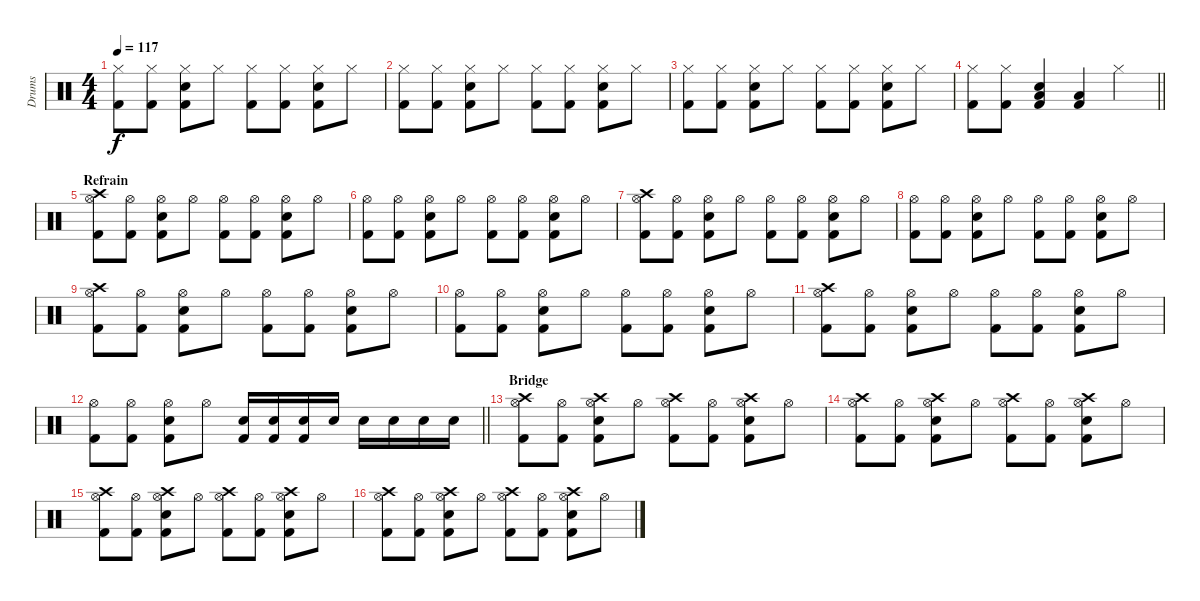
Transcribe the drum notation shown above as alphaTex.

\track ("Drums" "Drums") {instrument percussion}
\staff {score}
\articulation defaults
\ts (4 4)
\tempo 117
\clef neutral
\ks c
("Kick (hit) 2" "Hi-Hat (closed)").8{dy f} ("Kick (hit) 2" "Hi-Hat (closed)").8 ("Kick (hit) 2" "Hi-Hat (closed)" "Snare (hit) 2").8 "Hi-Hat (closed)".8 ("Kick (hit) 2" "Hi-Hat (closed)").8 ("Kick (hit) 2" "Hi-Hat (closed)").8 ("Kick (hit) 2" "Hi-Hat (closed)" "Snare (hit) 2").8 "Hi-Hat (closed)".8 |
("Kick (hit) 2" "Hi-Hat (closed)").8 ("Kick (hit) 2" "Hi-Hat (closed)").8 ("Kick (hit) 2" "Hi-Hat (closed)" "Snare (hit) 2").8 "Hi-Hat (closed)".8 ("Kick (hit) 2" "Hi-Hat (closed)").8 ("Kick (hit) 2" "Hi-Hat (closed)").8 ("Kick (hit) 2" "Hi-Hat (closed)" "Snare (hit) 2").8 "Hi-Hat (closed)".8 |
("Kick (hit) 2" "Hi-Hat (closed)").8 ("Kick (hit) 2" "Hi-Hat (closed)").8 ("Kick (hit) 2" "Hi-Hat (closed)" "Snare (hit) 2").8 "Hi-Hat (closed)".8 ("Kick (hit) 2" "Hi-Hat (closed)").8 ("Kick (hit) 2" "Hi-Hat (closed)").8 ("Kick (hit) 2" "Hi-Hat (closed)" "Snare (hit) 2").8 "Hi-Hat (closed)".8 |
\barLineRight lightlight
("Kick (hit) 2" "Hi-Hat (closed)").8 ("Kick (hit) 2" "Hi-Hat (closed)").8 ("Kick (hit) 2" "Low Floor Tom (hit)" "Snare (hit) 2").4 ("Kick (hit) 2" "Low Floor Tom (hit)").4 "Hi-Hat (closed)".4 |
\section ("" "Refrain")
("Kick (hit) 2" "Hi-Hat (open)" "Crash high (hit)").8 ("Kick (hit) 2" "Hi-Hat (open)").8 ("Kick (hit) 2" "Hi-Hat (open)" "Snare (hit) 2").8 "Hi-Hat (open)".8 ("Kick (hit) 2" "Hi-Hat (open)").8 ("Kick (hit) 2" "Hi-Hat (open)").8 ("Kick (hit) 2" "Hi-Hat (open)" "Snare (hit) 2").8 "Hi-Hat (open)".8 |
("Kick (hit) 2" "Hi-Hat (open)").8 ("Kick (hit) 2" "Hi-Hat (open)").8 ("Kick (hit) 2" "Hi-Hat (open)" "Snare (hit) 2").8 "Hi-Hat (open)".8 ("Kick (hit) 2" "Hi-Hat (open)").8 ("Kick (hit) 2" "Hi-Hat (open)").8 ("Kick (hit) 2" "Hi-Hat (open)" "Snare (hit) 2").8 "Hi-Hat (open)".8 |
("Kick (hit) 2" "Hi-Hat (open)" "Crash high (hit)").8 ("Kick (hit) 2" "Hi-Hat (open)").8 ("Kick (hit) 2" "Hi-Hat (open)" "Snare (hit) 2").8 "Hi-Hat (open)".8 ("Kick (hit) 2" "Hi-Hat (open)").8 ("Kick (hit) 2" "Hi-Hat (open)").8 ("Kick (hit) 2" "Hi-Hat (open)" "Snare (hit) 2").8 "Hi-Hat (open)".8 |
("Kick (hit) 2" "Hi-Hat (open)").8 ("Kick (hit) 2" "Hi-Hat (open)").8 ("Kick (hit) 2" "Hi-Hat (open)" "Snare (hit) 2").8 "Hi-Hat (open)".8 ("Kick (hit) 2" "Hi-Hat (open)").8 ("Kick (hit) 2" "Hi-Hat (open)").8 ("Kick (hit) 2" "Hi-Hat (open)" "Snare (hit) 2").8 "Hi-Hat (open)".8 |
("Kick (hit) 2" "Hi-Hat (open)" "Crash high (hit)").8 ("Kick (hit) 2" "Hi-Hat (open)").8 ("Kick (hit) 2" "Hi-Hat (open)" "Snare (hit) 2").8 "Hi-Hat (open)".8 ("Kick (hit) 2" "Hi-Hat (open)").8 ("Kick (hit) 2" "Hi-Hat (open)").8 ("Kick (hit) 2" "Hi-Hat (open)" "Snare (hit) 2").8 "Hi-Hat (open)".8 |
("Kick (hit) 2" "Hi-Hat (open)").8 ("Kick (hit) 2" "Hi-Hat (open)").8 ("Kick (hit) 2" "Hi-Hat (open)" "Snare (hit) 2").8 "Hi-Hat (open)".8 ("Kick (hit) 2" "Hi-Hat (open)").8 ("Kick (hit) 2" "Hi-Hat (open)").8 ("Kick (hit) 2" "Hi-Hat (open)" "Snare (hit) 2").8 "Hi-Hat (open)".8 |
("Kick (hit) 2" "Hi-Hat (open)" "Crash high (hit)").8 ("Kick (hit) 2" "Hi-Hat (open)").8 ("Kick (hit) 2" "Hi-Hat (open)" "Snare (hit) 2").8 "Hi-Hat (open)".8 ("Kick (hit) 2" "Hi-Hat (open)").8 ("Kick (hit) 2" "Hi-Hat (open)").8 ("Kick (hit) 2" "Hi-Hat (open)" "Snare (hit) 2").8 "Hi-Hat (open)".8 |
\barLineRight lightlight
("Kick (hit) 2" "Hi-Hat (open)").8 ("Kick (hit) 2" "Hi-Hat (open)").8 ("Kick (hit) 2" "Hi-Hat (open)" "Snare (hit) 2").8 "Hi-Hat (open)".8 ("Kick (hit) 2" "Snare (hit) 2").16 ("Kick (hit) 2" "Snare (hit) 2").16 ("Kick (hit) 2" "Snare (hit) 2").16 "Snare (hit) 2".16 "Snare (hit) 2".16 "Snare (hit) 2".16 "Snare (hit) 2".16 "Snare (hit) 2".16 |
\section ("" "Bridge")
("Kick (hit) 2" "Hi-Hat (open)" "Crash high (hit)").8 ("Kick (hit) 2" "Hi-Hat (open)").8 ("Kick (hit) 2" "Hi-Hat (open)" "Snare (hit) 2" "Crash high (hit)").8 "Hi-Hat (open)".8 ("Kick (hit) 2" "Hi-Hat (open)" "Crash high (hit)").8 ("Kick (hit) 2" "Hi-Hat (open)").8 ("Kick (hit) 2" "Hi-Hat (open)" "Snare (hit) 2" "Crash high (hit)").8 "Hi-Hat (open)".8 |
("Kick (hit) 2" "Hi-Hat (open)" "Crash high (hit)").8 ("Kick (hit) 2" "Hi-Hat (open)").8 ("Kick (hit) 2" "Hi-Hat (open)" "Snare (hit) 2" "Crash high (hit)").8 "Hi-Hat (open)".8 ("Kick (hit) 2" "Hi-Hat (open)" "Crash high (hit)").8 ("Kick (hit) 2" "Hi-Hat (open)").8 ("Kick (hit) 2" "Hi-Hat (open)" "Snare (hit) 2" "Crash high (hit)").8 "Hi-Hat (open)".8 |
("Kick (hit) 2" "Hi-Hat (open)" "Crash high (hit)").8 ("Kick (hit) 2" "Hi-Hat (open)").8 ("Kick (hit) 2" "Hi-Hat (open)" "Snare (hit) 2" "Crash high (hit)").8 "Hi-Hat (open)".8 ("Kick (hit) 2" "Hi-Hat (open)" "Crash high (hit)").8 ("Kick (hit) 2" "Hi-Hat (open)").8 ("Kick (hit) 2" "Hi-Hat (open)" "Snare (hit) 2" "Crash high (hit)").8 "Hi-Hat (open)".8 |
("Kick (hit) 2" "Hi-Hat (open)" "Crash high (hit)").8 ("Kick (hit) 2" "Hi-Hat (open)").8 ("Kick (hit) 2" "Hi-Hat (open)" "Snare (hit) 2" "Crash high (hit)").8 "Hi-Hat (open)".8 ("Kick (hit) 2" "Hi-Hat (open)" "Crash high (hit)").8 ("Kick (hit) 2" "Hi-Hat (open)").8 ("Kick (hit) 2" "Hi-Hat (open)" "Snare (hit) 2" "Crash high (hit)").8 "Hi-Hat (open)".8
